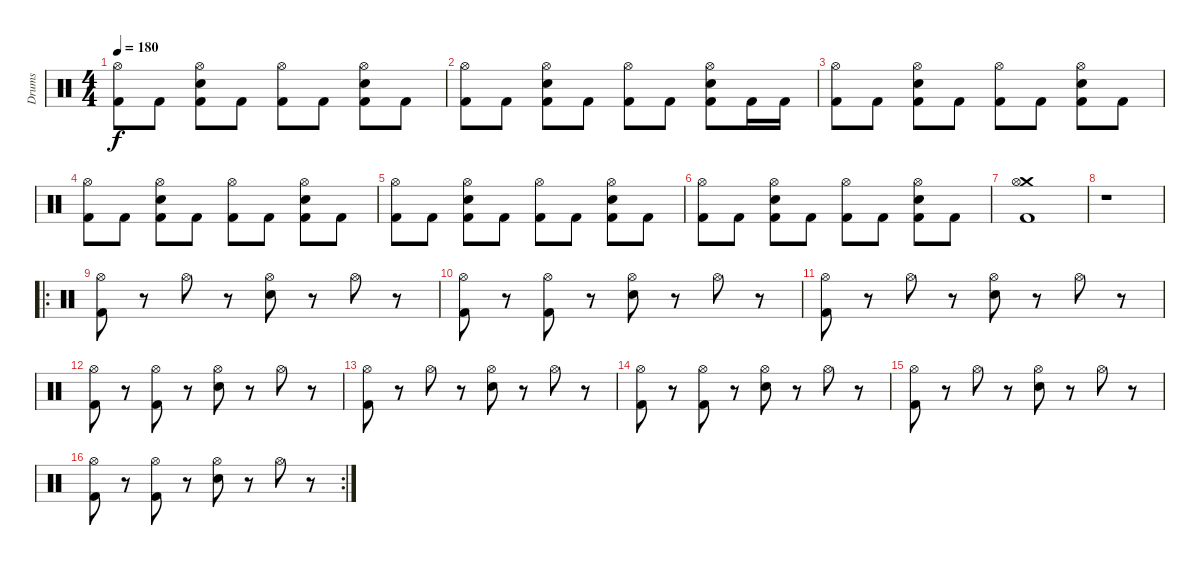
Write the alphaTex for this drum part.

\track ("Drums" "Drums") {instrument percussion}
\staff {score}
\articulation defaults
\ts (4 4)
\tempo 180
\clef neutral
\ks c
("Hi-Hat (open)" "Kick (hit) 2").8{dy f} "Kick (hit) 2".8 ("Hi-Hat (open)" "Electric Snare (hit)" "Kick (hit) 2").8 "Kick (hit) 2".8 ("Hi-Hat (open)" "Kick (hit) 2").8 "Kick (hit) 2".8 ("Hi-Hat (open)" "Electric Snare (hit)" "Kick (hit) 2").8 "Kick (hit) 2".8 |
("Hi-Hat (open)" "Kick (hit) 2").8 "Kick (hit) 2".8 ("Hi-Hat (open)" "Electric Snare (hit)" "Kick (hit) 2").8 "Kick (hit) 2".8 ("Hi-Hat (open)" "Kick (hit) 2").8 "Kick (hit) 2".8 ("Hi-Hat (open)" "Electric Snare (hit)" "Kick (hit) 2").8 "Kick (hit) 2".16 "Kick (hit) 2".16 |
("Hi-Hat (open)" "Kick (hit) 2").8 "Kick (hit) 2".8 ("Hi-Hat (open)" "Electric Snare (hit)" "Kick (hit) 2").8 "Kick (hit) 2".8 ("Hi-Hat (open)" "Kick (hit) 2").8 "Kick (hit) 2".8 ("Hi-Hat (open)" "Electric Snare (hit)" "Kick (hit) 2").8 "Kick (hit) 2".8 |
("Hi-Hat (open)" "Kick (hit) 2").8 "Kick (hit) 2".8 ("Hi-Hat (open)" "Electric Snare (hit)" "Kick (hit) 2").8 "Kick (hit) 2".8 ("Hi-Hat (open)" "Kick (hit) 2").8 "Kick (hit) 2".8 ("Hi-Hat (open)" "Electric Snare (hit)" "Kick (hit) 2").8 "Kick (hit) 2".8 |
("Hi-Hat (open)" "Kick (hit) 2").8 "Kick (hit) 2".8 ("Hi-Hat (open)" "Electric Snare (hit)" "Kick (hit) 2").8 "Kick (hit) 2".8 ("Hi-Hat (open)" "Kick (hit) 2").8 "Kick (hit) 2".8 ("Hi-Hat (open)" "Electric Snare (hit)" "Kick (hit) 2").8 "Kick (hit) 2".8 |
("Hi-Hat (open)" "Kick (hit) 2").8 "Kick (hit) 2".8 ("Hi-Hat (open)" "Electric Snare (hit)" "Kick (hit) 2").8 "Kick (hit) 2".8 ("Hi-Hat (open)" "Kick (hit) 2").8 "Kick (hit) 2".8 ("Hi-Hat (open)" "Electric Snare (hit)" "Kick (hit) 2").8 "Kick (hit) 2".8 |
("Crash medium (hit)" "Hi-Hat (open)" "Kick (hit) 2").1 |
r.1 |
\ro
("Hi-Hat (open)" "Kick (hit) 2").8 r.8 "Hi-Hat (open)".8 r.8 ("Hi-Hat (open)" "Electric Snare (hit)").8 r.8 "Hi-Hat (open)".8 r.8 |
("Hi-Hat (open)" "Kick (hit) 2").8 r.8 ("Hi-Hat (open)" "Kick (hit) 2").8 r.8 ("Hi-Hat (open)" "Electric Snare (hit)").8 r.8 "Hi-Hat (open)".8 r.8 |
("Hi-Hat (open)" "Kick (hit) 2").8 r.8 "Hi-Hat (open)".8 r.8 ("Hi-Hat (open)" "Electric Snare (hit)").8 r.8 "Hi-Hat (open)".8 r.8 |
("Hi-Hat (open)" "Kick (hit) 2").8 r.8 ("Hi-Hat (open)" "Kick (hit) 2").8 r.8 ("Hi-Hat (open)" "Electric Snare (hit)").8 r.8 "Hi-Hat (open)".8 r.8 |
("Hi-Hat (open)" "Kick (hit) 2").8 r.8 "Hi-Hat (open)".8 r.8 ("Hi-Hat (open)" "Electric Snare (hit)").8 r.8 "Hi-Hat (open)".8 r.8 |
("Hi-Hat (open)" "Kick (hit) 2").8 r.8 ("Hi-Hat (open)" "Kick (hit) 2").8 r.8 ("Hi-Hat (open)" "Electric Snare (hit)").8 r.8 "Hi-Hat (open)".8 r.8 |
("Hi-Hat (open)" "Kick (hit) 2").8 r.8 "Hi-Hat (open)".8 r.8 ("Hi-Hat (open)" "Electric Snare (hit)").8 r.8 "Hi-Hat (open)".8 r.8 |
\rc 2
("Hi-Hat (open)" "Kick (hit) 2").8 r.8 ("Hi-Hat (open)" "Kick (hit) 2").8 r.8 ("Hi-Hat (open)" "Electric Snare (hit)").8 r.8 "Hi-Hat (open)".8 r.8
